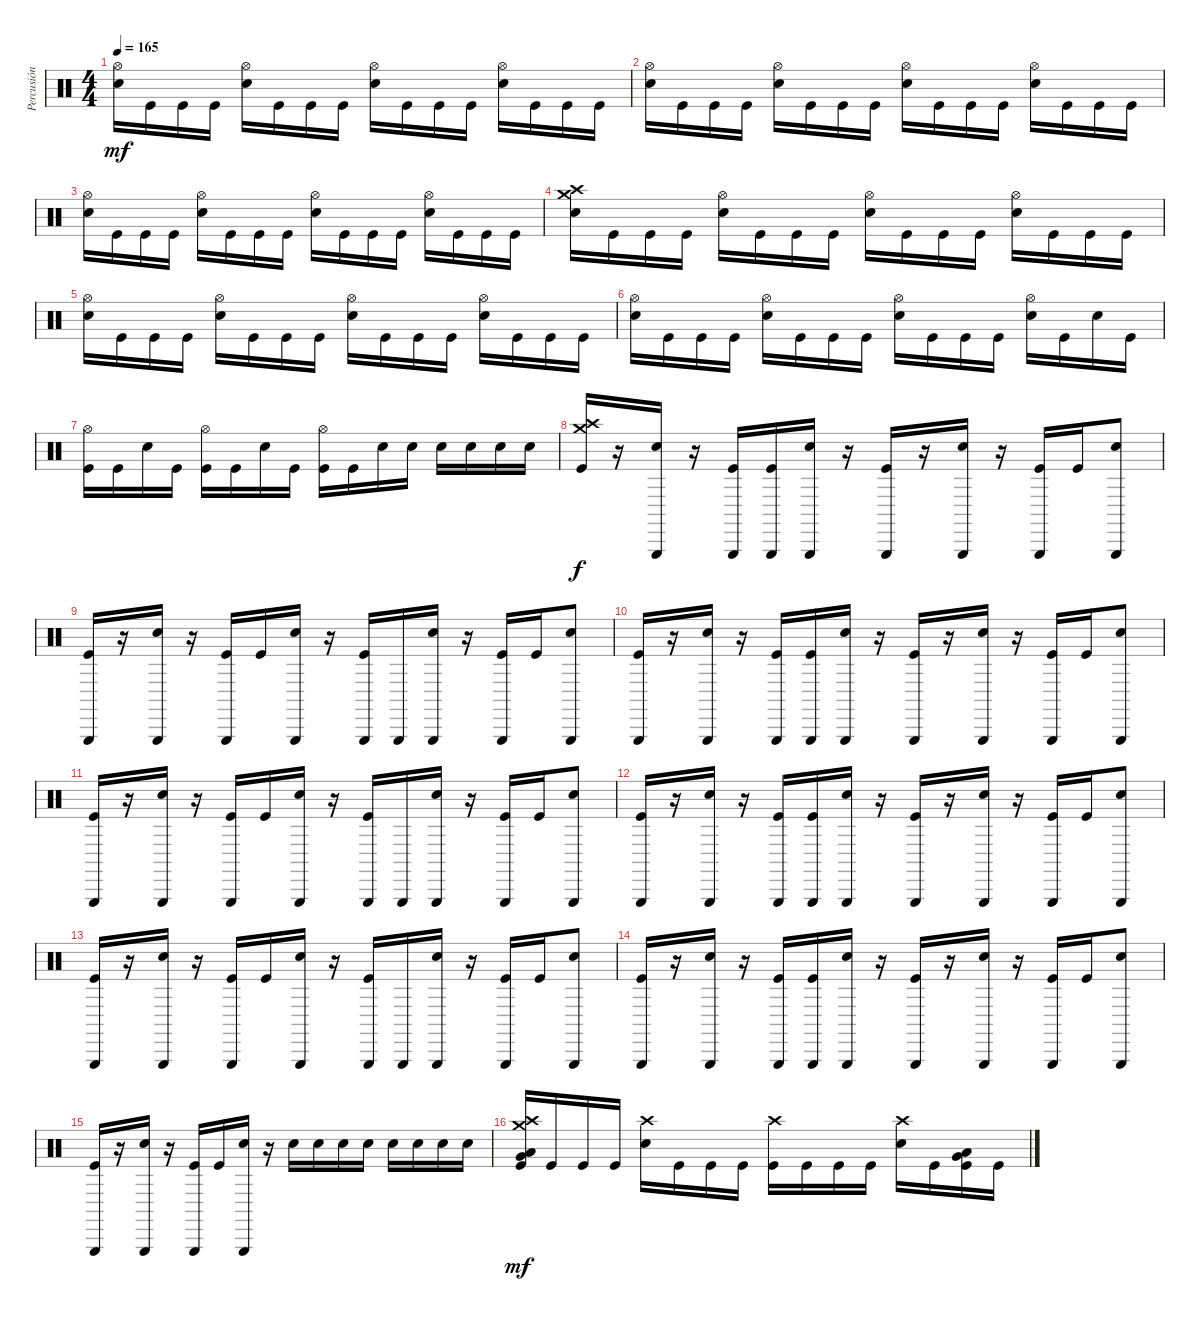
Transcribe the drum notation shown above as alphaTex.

\track ("Percusión" "Percusión") {instrument percussion}
\staff {score}
\articulation defaults
\ts (4 4)
\tempo 165
\clef neutral
\ks c
("Hi-Hat (open)" "Electric Snare (hit)").16{dy mf} "Kick (hit)".16 "Kick (hit)".16 "Kick (hit)".16 ("Hi-Hat (open)" "Electric Snare (hit)").16 "Kick (hit)".16 "Kick (hit)".16 "Kick (hit)".16 ("Hi-Hat (open)" "Electric Snare (hit)").16 "Kick (hit)".16 "Kick (hit)".16 "Kick (hit)".16 ("Hi-Hat (open)" "Electric Snare (hit)").16 "Kick (hit)".16 "Kick (hit)".16 "Kick (hit)".16 |
("Hi-Hat (open)" "Electric Snare (hit)").16 "Kick (hit)".16 "Kick (hit)".16 "Kick (hit)".16 ("Hi-Hat (open)" "Electric Snare (hit)").16 "Kick (hit)".16 "Kick (hit)".16 "Kick (hit)".16 ("Hi-Hat (open)" "Electric Snare (hit)").16 "Kick (hit)".16 "Kick (hit)".16 "Kick (hit)".16 ("Hi-Hat (open)" "Electric Snare (hit)").16 "Kick (hit)".16 "Kick (hit)".16 "Kick (hit)".16 |
("Hi-Hat (open)" "Electric Snare (hit)").16 "Kick (hit)".16 "Kick (hit)".16 "Kick (hit)".16 ("Hi-Hat (open)" "Electric Snare (hit)").16 "Kick (hit)".16 "Kick (hit)".16 "Kick (hit)".16 ("Hi-Hat (open)" "Electric Snare (hit)").16 "Kick (hit)".16 "Kick (hit)".16 "Kick (hit)".16 ("Hi-Hat (open)" "Electric Snare (hit)").16 "Kick (hit)".16 "Kick (hit)".16 "Kick (hit)".16 |
("Crash medium (hit)" "Crash high (hit)" "Electric Snare (hit)").16 "Kick (hit)".16 "Kick (hit)".16 "Kick (hit)".16 ("Hi-Hat (open)" "Electric Snare (hit)").16 "Kick (hit)".16 "Kick (hit)".16 "Kick (hit)".16 ("Hi-Hat (open)" "Electric Snare (hit)").16 "Kick (hit)".16 "Kick (hit)".16 "Kick (hit)".16 ("Hi-Hat (open)" "Electric Snare (hit)").16 "Kick (hit)".16 "Kick (hit)".16 "Kick (hit)".16 |
("Hi-Hat (open)" "Electric Snare (hit)").16 "Kick (hit)".16 "Kick (hit)".16 "Kick (hit)".16 ("Hi-Hat (open)" "Electric Snare (hit)").16 "Kick (hit)".16 "Kick (hit)".16 "Kick (hit)".16 ("Hi-Hat (open)" "Electric Snare (hit)").16 "Kick (hit)".16 "Kick (hit)".16 "Kick (hit)".16 ("Hi-Hat (open)" "Electric Snare (hit)").16 "Kick (hit)".16 "Kick (hit)".16 "Kick (hit)".16 |
("Hi-Hat (open)" "Electric Snare (hit)").16 "Kick (hit)".16 "Kick (hit)".16 "Kick (hit)".16 ("Hi-Hat (open)" "Electric Snare (hit)").16 "Kick (hit)".16 "Kick (hit)".16 "Kick (hit)".16 ("Hi-Hat (open)" "Electric Snare (hit)").16 "Kick (hit)".16 "Kick (hit)".16 "Kick (hit)".16 ("Hi-Hat (open)" "Electric Snare (hit)").16 "Kick (hit)".16 "Electric Snare (hit)".16 "Kick (hit)".16 |
("Hi-Hat (open)" "Kick (hit)").16 "Kick (hit)".16 "Electric Snare (hit)".16 "Kick (hit)".16 ("Hi-Hat (open)" "Kick (hit)").16 "Kick (hit)".16 "Electric Snare (hit)".16 "Kick (hit)".16 ("Hi-Hat (open)" "Kick (hit)").16 "Kick (hit)".16 "Electric Snare (hit)".16 "Electric Snare (hit)".16 "Electric Snare (hit)".16 "Electric Snare (hit)".16 "Electric Snare (hit)".16 "Electric Snare (hit)".16 |
("Crash medium (hit)" "Crash high (hit)" "Kick (hit)").16{dy f} r.16 ("Triangle (hit)" "Electric Snare (hit)").16 r.16 ("Triangle (hit)" "Kick (hit)").16 ("Triangle (hit)" "Kick (hit)").16 ("Triangle (hit)" "Electric Snare (hit)").16 r.16 ("Triangle (hit)" "Kick (hit)").16 r.16 ("Triangle (hit)" "Electric Snare (hit)").16 r.16 ("Triangle (hit)" "Kick (hit)").16 "Kick (hit)".16 ("Triangle (hit)" "Electric Snare (hit)").8 |
("Triangle (hit)" "Kick (hit)").16 r.16 ("Triangle (hit)" "Electric Snare (hit)").16 r.16 ("Triangle (hit)" "Kick (hit)").16 "Kick (hit)".16 ("Triangle (hit)" "Electric Snare (hit)").16 r.16 ("Triangle (hit)" "Kick (hit)").16 "Triangle (hit)".16 ("Triangle (hit)" "Electric Snare (hit)").16 r.16 ("Triangle (hit)" "Kick (hit)").16 "Kick (hit)".16 ("Triangle (hit)" "Electric Snare (hit)").8 |
("Triangle (hit)" "Kick (hit)").16 r.16 ("Triangle (hit)" "Electric Snare (hit)").16 r.16 ("Triangle (hit)" "Kick (hit)").16 ("Triangle (hit)" "Kick (hit)").16 ("Triangle (hit)" "Electric Snare (hit)").16 r.16 ("Triangle (hit)" "Kick (hit)").16 r.16 ("Triangle (hit)" "Electric Snare (hit)").16 r.16 ("Triangle (hit)" "Kick (hit)").16 "Kick (hit)".16 ("Triangle (hit)" "Electric Snare (hit)").8 |
("Triangle (hit)" "Kick (hit)").16 r.16 ("Triangle (hit)" "Electric Snare (hit)").16 r.16 ("Triangle (hit)" "Kick (hit)").16 "Kick (hit)".16 ("Triangle (hit)" "Electric Snare (hit)").16 r.16 ("Triangle (hit)" "Kick (hit)").16 "Triangle (hit)".16 ("Triangle (hit)" "Electric Snare (hit)").16 r.16 ("Triangle (hit)" "Kick (hit)").16 "Kick (hit)".16 ("Triangle (hit)" "Electric Snare (hit)").8 |
("Triangle (hit)" "Kick (hit)").16 r.16 ("Triangle (hit)" "Electric Snare (hit)").16 r.16 ("Triangle (hit)" "Kick (hit)").16 ("Triangle (hit)" "Kick (hit)").16 ("Triangle (hit)" "Electric Snare (hit)").16 r.16 ("Triangle (hit)" "Kick (hit)").16 r.16 ("Triangle (hit)" "Electric Snare (hit)").16 r.16 ("Triangle (hit)" "Kick (hit)").16 "Kick (hit)".16 ("Triangle (hit)" "Electric Snare (hit)").8 |
("Triangle (hit)" "Kick (hit)").16 r.16 ("Triangle (hit)" "Electric Snare (hit)").16 r.16 ("Triangle (hit)" "Kick (hit)").16 "Kick (hit)".16 ("Triangle (hit)" "Electric Snare (hit)").16 r.16 ("Triangle (hit)" "Kick (hit)").16 "Triangle (hit)".16 ("Triangle (hit)" "Electric Snare (hit)").16 r.16 ("Triangle (hit)" "Kick (hit)").16 "Kick (hit)".16 ("Triangle (hit)" "Electric Snare (hit)").8 |
("Triangle (hit)" "Kick (hit)").16 r.16 ("Triangle (hit)" "Electric Snare (hit)").16 r.16 ("Triangle (hit)" "Kick (hit)").16 ("Triangle (hit)" "Kick (hit)").16 ("Triangle (hit)" "Electric Snare (hit)").16 r.16 ("Triangle (hit)" "Kick (hit)").16 r.16 ("Triangle (hit)" "Electric Snare (hit)").16 r.16 ("Triangle (hit)" "Kick (hit)").16 "Kick (hit)".16 ("Triangle (hit)" "Electric Snare (hit)").8 |
("Triangle (hit)" "Kick (hit)").16 r.16 ("Triangle (hit)" "Electric Snare (hit)").16 r.16 ("Triangle (hit)" "Kick (hit)").16 "Kick (hit)".16 ("Triangle (hit)" "Electric Snare (hit)").16 r.16 "Electric Snare (hit)".16 "Electric Snare (hit)".16 "Electric Snare (hit)".16 "Electric Snare (hit)".16 "Electric Snare (hit)".16 "Electric Snare (hit)".16 "Electric Snare (hit)".16 "Electric Snare (hit)".16 |
("Very Low Tom (hit)" "Low Tom (hit)" "Crash medium (hit)" "Crash high (hit)" "Kick (hit)").16{dy mf} "Kick (hit)".16 "Kick (hit)".16 "Kick (hit)".16 ("Crash high (hit)" "Electric Snare (hit)").16 "Kick (hit)".16 "Kick (hit)".16 "Kick (hit)".16 ("Crash high (hit)" "Kick (hit)").16 "Kick (hit)".16 "Kick (hit)".16 "Kick (hit)".16 ("Crash high (hit)" "Electric Snare (hit)").16 "Kick (hit)".16 ("Very Low Tom (hit)" "Low Tom (hit)" "Kick (hit)").16 "Kick (hit)".16
